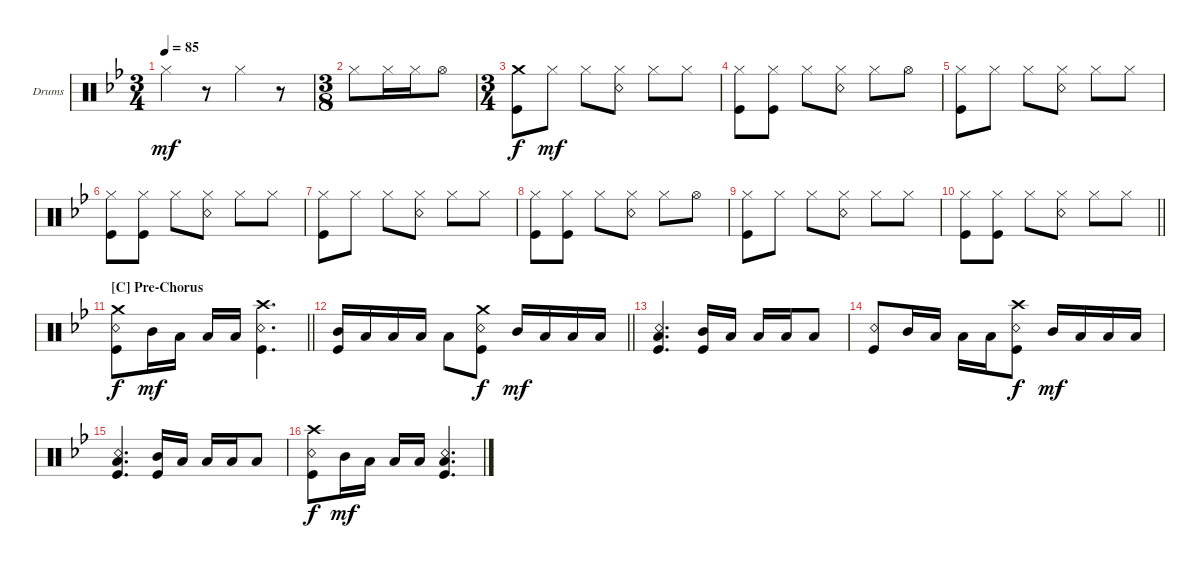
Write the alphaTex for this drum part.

\bracketExtendMode groupsimilarinstruments
\firstSystemTrackNameOrientation horizontal
\otherSystemsTrackNameOrientation horizontal
\track ("Drums" "Drums") {instrument percussion}
\staff {score}
\articulation defaults
\ts (3 4)
\tempo 85
\clef neutral
\scale
0.333333
\ks bb "Hi-Hat (closed)".4{dy mf}
r.8 "Hi-Hat (closed)".4 r.8 |
\ts (3 8)
"Hi-Hat (closed)".8 "Hi-Hat (closed)".16 "Hi-Hat (closed)".16 "Hi-Hat (open)".8 |
\ts (3 4)
\scale
0.333333 ("Crash medium (hit)" "Kick (hit)").8{dy f} "Hi-Hat (closed)".8{dy mf} "Hi-Hat (closed)".8 ("Snare (rim shot)" "Hi-Hat (closed)").8 "Hi-Hat (closed)".8 "Hi-Hat (closed)".8 |
\scale
0.333333 ("Kick (hit)" "Hi-Hat (closed)").8 ("Hi-Hat (closed)" "Kick (hit)").8 "Hi-Hat (closed)".8 ("Snare (rim shot)" "Hi-Hat (closed)").8 "Hi-Hat (closed)".8 "Hi-Hat (open)".8 |
\scale
0.333333 ("Kick (hit)" "Hi-Hat (closed)").8 "Hi-Hat (closed)".8 "Hi-Hat (closed)".8 ("Snare (rim shot)" "Hi-Hat (closed)").8 "Hi-Hat (closed)".8 "Hi-Hat (closed)".8 |
\scale
0.333333 ("Kick (hit)" "Hi-Hat (closed)").8 ("Hi-Hat (closed)" "Kick (hit)").8 "Hi-Hat (closed)".8 ("Snare (rim shot)" "Hi-Hat (closed)").8 "Hi-Hat (closed)".8 "Hi-Hat (closed)".8 |
\scale
0.333333 ("Kick (hit)" "Hi-Hat (closed)").8 "Hi-Hat (closed)".8 "Hi-Hat (closed)".8 ("Snare (rim shot)" "Hi-Hat (closed)").8 "Hi-Hat (closed)".8 "Hi-Hat (closed)".8 |
\scale
0.333333 ("Kick (hit)" "Hi-Hat (closed)").8 ("Hi-Hat (closed)" "Kick (hit)").8 "Hi-Hat (closed)".8 ("Snare (rim shot)" "Hi-Hat (closed)").8 "Hi-Hat (closed)".8 "Hi-Hat (open)".8 |
\scale
0.333333 ("Kick (hit)" "Hi-Hat (closed)").8 "Hi-Hat (closed)".8 "Hi-Hat (closed)".8 ("Snare (rim shot)" "Hi-Hat (closed)").8 "Hi-Hat (closed)".8 "Hi-Hat (closed)".8 |
\scale
0.333333
\barLineRight lightlight
("Kick (hit)" "Hi-Hat (closed)").8 ("Hi-Hat (closed)" "Kick (hit)").8 "Hi-Hat (closed)".8 ("Snare (rim shot)" "Hi-Hat (closed)").8 "Hi-Hat (closed)".8 "Hi-Hat (closed)".8 |
\section ("C" "Pre-Chorus")
\scale
0.333333
\barLineRight lightlight
("Kick (hit)" "Snare (rim shot)" "Crash medium (hit)").8{dy f} "Mid Tom (hit)".16{dy mf} "Low Tom (hit)".16 "Low Tom (hit)".16 "Low Tom (hit)".16 ("Snare (rim shot)" "Kick (hit)" "Crash high (hit)").4{d} |
\scale
0.333333
\barLineRight lightlight
("Mid Tom (hit)" "Kick (hit)").16 "Low Tom (hit)".16 "Low Tom (hit)".16 "Low Tom (hit)".16 "Low Tom (hit)".8 ("Kick (hit)" "Snare (rim shot)" "Crash medium (hit)").8{dy f} "Mid Tom (hit)".16{dy mf} "Low Tom (hit)".16 "Low Tom (hit)".16 "Low Tom (hit)".16 |
\scale
0.333333 ("Kick (hit)" "Snare (rim shot)" "Low Tom (hit)").4{d} ("Mid Tom (hit)" "Kick (hit)").16 "Low Tom (hit)".16 "Low Tom (hit)".16 "Low Tom (hit)".16 "Low Tom (hit)".8 |
\scale
0.333333 ("Kick (hit)" "Snare (rim shot)").8 "Mid Tom (hit)".16 "Low Tom (hit)".16 "Low Tom (hit)".16 "Low Tom (hit)".16 ("Kick (hit)" "Crash high (hit)" "Snare (rim shot)").8{dy f} "Mid Tom (hit)".16{dy mf} "Low Tom (hit)".16 "Low Tom (hit)".16 "Low Tom (hit)".16 |
\scale
0.333333 ("Kick (hit)" "Snare (rim shot)" "Low Tom (hit)").4{d} ("Mid Tom (hit)" "Kick (hit)").16 "Low Tom (hit)".16 "Low Tom (hit)".16 "Low Tom (hit)".16 "Low Tom (hit)".8 |
\scale
0.333333 ("Kick (hit)" "Snare (rim shot)" "Crash high (hit)").8{dy f} "Mid Tom (hit)".16{dy mf} "Low Tom (hit)".16 "Low Tom (hit)".16 "Low Tom (hit)".16 ("Kick (hit)" "Low Tom (hit)" "Snare (rim shot)").4{d}
